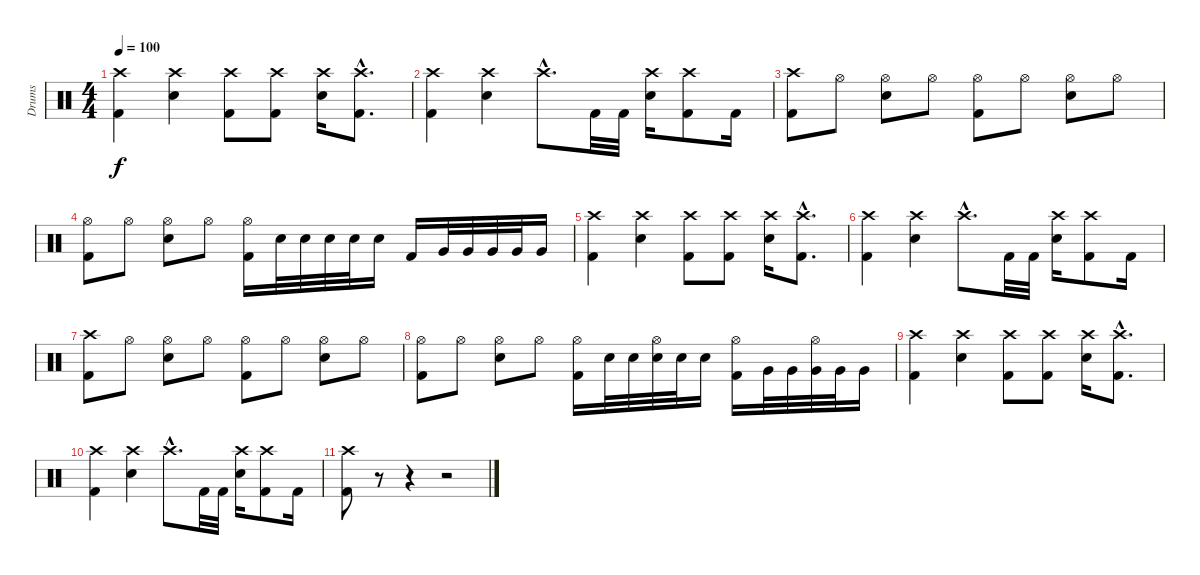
\track ("Drums" "Drums") {instrument percussion}
\staff {score}
\articulation defaults
\ts (4 4)
\tempo 100
\clef neutral
\ks c
("Crash high (hit)" "Kick (hit) 2").4{dy f} ("Crash high (hit)" "Electric Snare (hit)").4 ("Crash high (hit)" "Kick (hit) 2").8 ("Crash high (hit)" "Kick (hit) 2").8 ("Crash high (hit)" "Electric Snare (hit)").16 ("Crash high (hit)"{hac} "Kick (hit) 2"{hac}).8{d} |
("Crash high (hit)" "Kick (hit) 2").4 ("Crash high (hit)" "Electric Snare (hit)").4 "Crash high (hit)"{hac}.8{d} "Kick (hit) 2".32 "Kick (hit) 2".32 ("Crash high (hit)" "Electric Snare (hit)").16 ("Crash high (hit)" "Kick (hit) 2").8 "Kick (hit) 2".16 |
("Crash high (hit)" "Kick (hit) 2").8 "Hi-Hat (open)".8 ("Hi-Hat (open)" "Electric Snare (hit)").8 "Hi-Hat (open)".8 ("Hi-Hat (open)" "Kick (hit) 2").8 "Hi-Hat (open)".8 ("Hi-Hat (open)" "Electric Snare (hit)").8 "Hi-Hat (open)".8 |
("Hi-Hat (open)" "Kick (hit) 2").8 "Hi-Hat (open)".8 ("Hi-Hat (open)" "Electric Snare (hit)").8 "Hi-Hat (open)".8 ("Hi-Hat (open)" "Kick (hit) 2").16 "Electric Snare (hit)".32 "Electric Snare (hit)".32 "Electric Snare (hit)".32 "Electric Snare (hit)".32 "Electric Snare (hit)".16 "Kick (hit) 2".16 "Very Low Tom (hit)".32 "Very Low Tom (hit)".32 "Very Low Tom (hit)".32 "Very Low Tom (hit)".32 "Very Low Tom (hit)".16 |
("Crash high (hit)" "Kick (hit) 2").4 ("Crash high (hit)" "Electric Snare (hit)").4 ("Crash high (hit)" "Kick (hit) 2").8 ("Crash high (hit)" "Kick (hit) 2").8 ("Crash high (hit)" "Electric Snare (hit)").16 ("Crash high (hit)"{hac} "Kick (hit) 2"{hac}).8{d} |
("Crash high (hit)" "Kick (hit) 2").4 ("Crash high (hit)" "Electric Snare (hit)").4 "Crash high (hit)"{hac}.8{d} "Kick (hit) 2".32 "Kick (hit) 2".32 ("Crash high (hit)" "Electric Snare (hit)").16 ("Crash high (hit)" "Kick (hit) 2").8 "Kick (hit) 2".16 |
("Crash high (hit)" "Kick (hit) 2").8 "Hi-Hat (open)".8 ("Hi-Hat (open)" "Electric Snare (hit)").8 "Hi-Hat (open)".8 ("Hi-Hat (open)" "Kick (hit) 2").8 "Hi-Hat (open)".8 ("Hi-Hat (open)" "Electric Snare (hit)").8 "Hi-Hat (open)".8 |
("Hi-Hat (open)" "Kick (hit) 2").8 "Hi-Hat (open)".8 ("Hi-Hat (open)" "Electric Snare (hit)").8 "Hi-Hat (open)".8 ("Hi-Hat (open)" "Kick (hit) 2").16 "Electric Snare (hit)".32 "Electric Snare (hit)".32 ("Hi-Hat (open)" "Electric Snare (hit)").32 "Electric Snare (hit)".32 "Electric Snare (hit)".16 ("Hi-Hat (open)" "Kick (hit) 2").16 "Very Low Tom (hit)".32 "Very Low Tom (hit)".32 ("Hi-Hat (open)" "Very Low Tom (hit)").32 "Very Low Tom (hit)".32 "Very Low Tom (hit)".16 |
("Crash high (hit)" "Kick (hit) 2").4 ("Crash high (hit)" "Electric Snare (hit)").4 ("Crash high (hit)" "Kick (hit) 2").8 ("Crash high (hit)" "Kick (hit) 2").8 ("Crash high (hit)" "Electric Snare (hit)").16 ("Crash high (hit)"{hac} "Kick (hit) 2"{hac}).8{d} |
("Crash high (hit)" "Kick (hit) 2").4 ("Crash high (hit)" "Electric Snare (hit)").4 "Crash high (hit)"{hac}.8{d} "Kick (hit) 2".32 "Kick (hit) 2".32 ("Crash high (hit)" "Electric Snare (hit)").16 ("Crash high (hit)" "Kick (hit) 2").8 "Kick (hit) 2".16 |
("Crash high (hit)" "Kick (hit) 2").8 r.8 r.4 r.2
